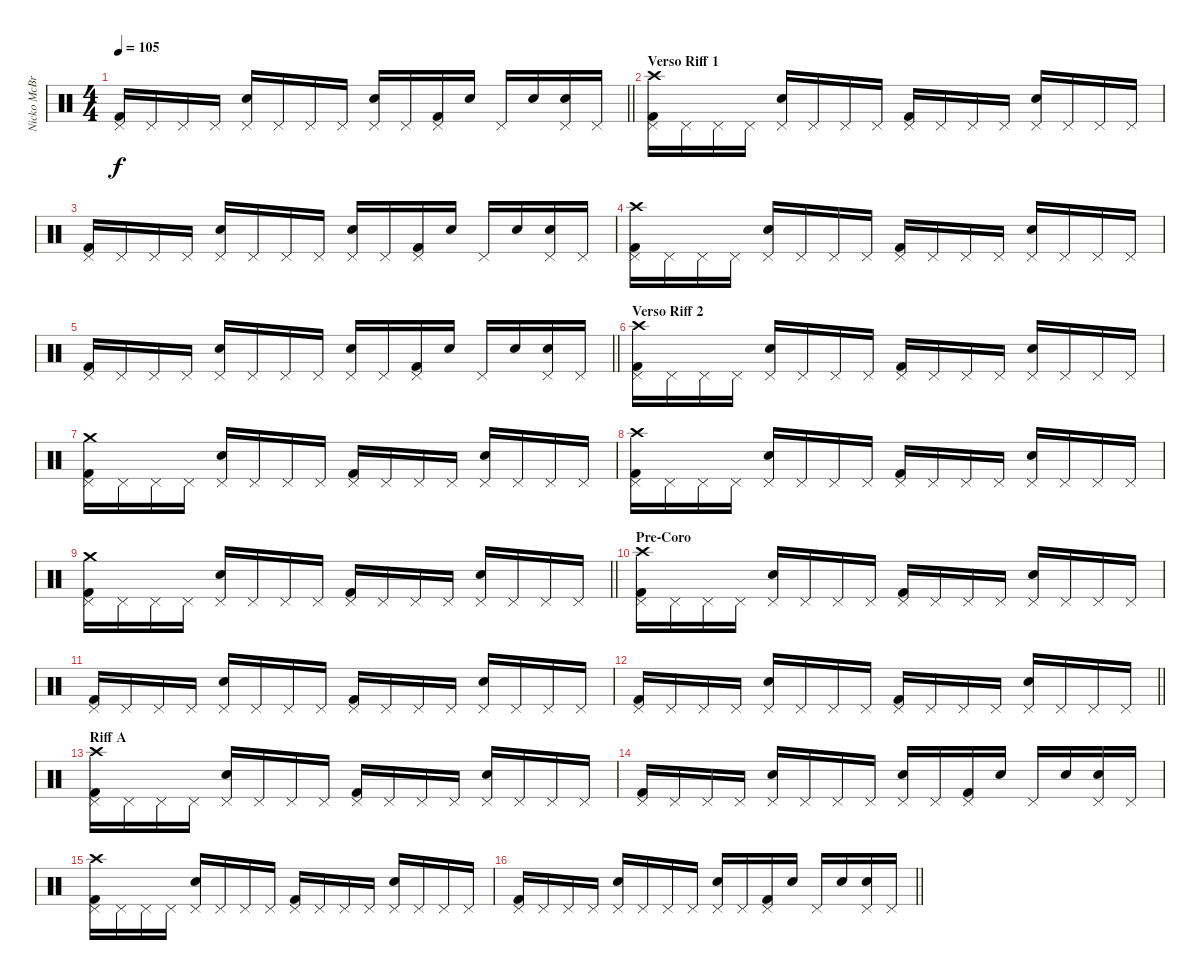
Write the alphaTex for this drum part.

\track ("Nicko McBrain" "Nicko McBr") {instrument percussion}
\staff {score}
\articulation defaults
\ts (4 4)
\tempo 105
\clef neutral
\barLineRight lightlight
\ks c
("Kick (hit) 2" "Pedal Hi-Hat (hit)").16{dy f} "Pedal Hi-Hat (hit)".16 "Pedal Hi-Hat (hit)".16 "Pedal Hi-Hat (hit)".16 ("Snare (hit) 2" "Pedal Hi-Hat (hit)").16 "Pedal Hi-Hat (hit)".16 "Pedal Hi-Hat (hit)".16 "Pedal Hi-Hat (hit)".16 ("Snare (hit) 2" "Pedal Hi-Hat (hit)").16 "Pedal Hi-Hat (hit)".16 ("Kick (hit) 2" "Pedal Hi-Hat (hit)").16 "Snare (hit) 2".16 "Pedal Hi-Hat (hit)".16 "Snare (hit) 2".16 ("Snare (hit) 2" "Pedal Hi-Hat (hit)").16 "Pedal Hi-Hat (hit)".16 |
\section ("" "Verso Riff 1")
("Kick (hit) 2" "Pedal Hi-Hat (hit)" "Crash high (hit)").16 "Pedal Hi-Hat (hit)".16 "Pedal Hi-Hat (hit)".16 "Pedal Hi-Hat (hit)".16 ("Snare (hit) 2" "Pedal Hi-Hat (hit)").16 "Pedal Hi-Hat (hit)".16 "Pedal Hi-Hat (hit)".16 "Pedal Hi-Hat (hit)".16 ("Kick (hit) 2" "Pedal Hi-Hat (hit)").16 "Pedal Hi-Hat (hit)".16 "Pedal Hi-Hat (hit)".16 "Pedal Hi-Hat (hit)".16 ("Snare (hit) 2" "Pedal Hi-Hat (hit)").16 "Pedal Hi-Hat (hit)".16 "Pedal Hi-Hat (hit)".16 "Pedal Hi-Hat (hit)".16 |
("Kick (hit) 2" "Pedal Hi-Hat (hit)").16 "Pedal Hi-Hat (hit)".16 "Pedal Hi-Hat (hit)".16 "Pedal Hi-Hat (hit)".16 ("Snare (hit) 2" "Pedal Hi-Hat (hit)").16 "Pedal Hi-Hat (hit)".16 "Pedal Hi-Hat (hit)".16 "Pedal Hi-Hat (hit)".16 ("Snare (hit) 2" "Pedal Hi-Hat (hit)").16 "Pedal Hi-Hat (hit)".16 ("Kick (hit) 2" "Pedal Hi-Hat (hit)").16 "Snare (hit) 2".16 "Pedal Hi-Hat (hit)".16 "Snare (hit) 2".16 ("Snare (hit) 2" "Pedal Hi-Hat (hit)").16 "Pedal Hi-Hat (hit)".16 |
("Kick (hit) 2" "Pedal Hi-Hat (hit)" "Crash high (hit)").16 "Pedal Hi-Hat (hit)".16 "Pedal Hi-Hat (hit)".16 "Pedal Hi-Hat (hit)".16 ("Snare (hit) 2" "Pedal Hi-Hat (hit)").16 "Pedal Hi-Hat (hit)".16 "Pedal Hi-Hat (hit)".16 "Pedal Hi-Hat (hit)".16 ("Kick (hit) 2" "Pedal Hi-Hat (hit)").16 "Pedal Hi-Hat (hit)".16 "Pedal Hi-Hat (hit)".16 "Pedal Hi-Hat (hit)".16 ("Snare (hit) 2" "Pedal Hi-Hat (hit)").16 "Pedal Hi-Hat (hit)".16 "Pedal Hi-Hat (hit)".16 "Pedal Hi-Hat (hit)".16 |
\barLineRight lightlight
("Kick (hit) 2" "Pedal Hi-Hat (hit)").16 "Pedal Hi-Hat (hit)".16 "Pedal Hi-Hat (hit)".16 "Pedal Hi-Hat (hit)".16 ("Snare (hit) 2" "Pedal Hi-Hat (hit)").16 "Pedal Hi-Hat (hit)".16 "Pedal Hi-Hat (hit)".16 "Pedal Hi-Hat (hit)".16 ("Snare (hit) 2" "Pedal Hi-Hat (hit)").16 "Pedal Hi-Hat (hit)".16 ("Kick (hit) 2" "Pedal Hi-Hat (hit)").16 "Snare (hit) 2".16 "Pedal Hi-Hat (hit)".16 "Snare (hit) 2".16 ("Snare (hit) 2" "Pedal Hi-Hat (hit)").16 "Pedal Hi-Hat (hit)".16 |
\section ("" "Verso Riff 2")
("Kick (hit) 2" "Pedal Hi-Hat (hit)" "Crash high (hit)").16 "Pedal Hi-Hat (hit)".16 "Pedal Hi-Hat (hit)".16 "Pedal Hi-Hat (hit)".16 ("Snare (hit) 2" "Pedal Hi-Hat (hit)").16 "Pedal Hi-Hat (hit)".16 "Pedal Hi-Hat (hit)".16 "Pedal Hi-Hat (hit)".16 ("Kick (hit) 2" "Pedal Hi-Hat (hit)").16 "Pedal Hi-Hat (hit)".16 "Pedal Hi-Hat (hit)".16 "Pedal Hi-Hat (hit)".16 ("Snare (hit) 2" "Pedal Hi-Hat (hit)").16 "Pedal Hi-Hat (hit)".16 "Pedal Hi-Hat (hit)".16 "Pedal Hi-Hat (hit)".16 |
("Kick (hit) 2" "Pedal Hi-Hat (hit)" "Crash medium (hit)").16 "Pedal Hi-Hat (hit)".16 "Pedal Hi-Hat (hit)".16 "Pedal Hi-Hat (hit)".16 ("Snare (hit) 2" "Pedal Hi-Hat (hit)").16 "Pedal Hi-Hat (hit)".16 "Pedal Hi-Hat (hit)".16 "Pedal Hi-Hat (hit)".16 ("Kick (hit) 2" "Pedal Hi-Hat (hit)").16 "Pedal Hi-Hat (hit)".16 "Pedal Hi-Hat (hit)".16 "Pedal Hi-Hat (hit)".16 ("Snare (hit) 2" "Pedal Hi-Hat (hit)").16 "Pedal Hi-Hat (hit)".16 "Pedal Hi-Hat (hit)".16 "Pedal Hi-Hat (hit)".16 |
("Kick (hit) 2" "Pedal Hi-Hat (hit)" "Crash high (hit)").16 "Pedal Hi-Hat (hit)".16 "Pedal Hi-Hat (hit)".16 "Pedal Hi-Hat (hit)".16 ("Snare (hit) 2" "Pedal Hi-Hat (hit)").16 "Pedal Hi-Hat (hit)".16 "Pedal Hi-Hat (hit)".16 "Pedal Hi-Hat (hit)".16 ("Kick (hit) 2" "Pedal Hi-Hat (hit)").16 "Pedal Hi-Hat (hit)".16 "Pedal Hi-Hat (hit)".16 "Pedal Hi-Hat (hit)".16 ("Snare (hit) 2" "Pedal Hi-Hat (hit)").16 "Pedal Hi-Hat (hit)".16 "Pedal Hi-Hat (hit)".16 "Pedal Hi-Hat (hit)".16 |
\barLineRight lightlight
("Kick (hit) 2" "Pedal Hi-Hat (hit)" "Crash medium (hit)").16 "Pedal Hi-Hat (hit)".16 "Pedal Hi-Hat (hit)".16 "Pedal Hi-Hat (hit)".16 ("Snare (hit) 2" "Pedal Hi-Hat (hit)").16 "Pedal Hi-Hat (hit)".16 "Pedal Hi-Hat (hit)".16 "Pedal Hi-Hat (hit)".16 ("Kick (hit) 2" "Pedal Hi-Hat (hit)").16 "Pedal Hi-Hat (hit)".16 "Pedal Hi-Hat (hit)".16 "Pedal Hi-Hat (hit)".16 ("Snare (hit) 2" "Pedal Hi-Hat (hit)").16 "Pedal Hi-Hat (hit)".16 "Pedal Hi-Hat (hit)".16 "Pedal Hi-Hat (hit)".16 |
\section ("" "Pre-Coro")
("Kick (hit) 2" "Pedal Hi-Hat (hit)" "Crash high (hit)").16 "Pedal Hi-Hat (hit)".16 "Pedal Hi-Hat (hit)".16 "Pedal Hi-Hat (hit)".16 ("Snare (hit) 2" "Pedal Hi-Hat (hit)").16 "Pedal Hi-Hat (hit)".16 "Pedal Hi-Hat (hit)".16 "Pedal Hi-Hat (hit)".16 ("Kick (hit) 2" "Pedal Hi-Hat (hit)").16 "Pedal Hi-Hat (hit)".16 "Pedal Hi-Hat (hit)".16 "Pedal Hi-Hat (hit)".16 ("Snare (hit) 2" "Pedal Hi-Hat (hit)").16 "Pedal Hi-Hat (hit)".16 "Pedal Hi-Hat (hit)".16 "Pedal Hi-Hat (hit)".16 |
("Kick (hit) 2" "Pedal Hi-Hat (hit)").16 "Pedal Hi-Hat (hit)".16 "Pedal Hi-Hat (hit)".16 "Pedal Hi-Hat (hit)".16 ("Snare (hit) 2" "Pedal Hi-Hat (hit)").16 "Pedal Hi-Hat (hit)".16 "Pedal Hi-Hat (hit)".16 "Pedal Hi-Hat (hit)".16 ("Kick (hit) 2" "Pedal Hi-Hat (hit)").16 "Pedal Hi-Hat (hit)".16 "Pedal Hi-Hat (hit)".16 "Pedal Hi-Hat (hit)".16 ("Snare (hit) 2" "Pedal Hi-Hat (hit)").16 "Pedal Hi-Hat (hit)".16 "Pedal Hi-Hat (hit)".16 "Pedal Hi-Hat (hit)".16 |
\barLineRight lightlight
("Kick (hit) 2" "Pedal Hi-Hat (hit)").16 "Pedal Hi-Hat (hit)".16 "Pedal Hi-Hat (hit)".16 "Pedal Hi-Hat (hit)".16 ("Snare (hit) 2" "Pedal Hi-Hat (hit)").16 "Pedal Hi-Hat (hit)".16 "Pedal Hi-Hat (hit)".16 "Pedal Hi-Hat (hit)".16 ("Kick (hit) 2" "Pedal Hi-Hat (hit)").16 "Pedal Hi-Hat (hit)".16 "Pedal Hi-Hat (hit)".16 "Pedal Hi-Hat (hit)".16 ("Snare (hit) 2" "Pedal Hi-Hat (hit)").16 "Pedal Hi-Hat (hit)".16 "Pedal Hi-Hat (hit)".16 "Pedal Hi-Hat (hit)".16 |
\section ("" "Riff A")
("Kick (hit) 2" "Pedal Hi-Hat (hit)" "Crash high (hit)").16 "Pedal Hi-Hat (hit)".16 "Pedal Hi-Hat (hit)".16 "Pedal Hi-Hat (hit)".16 ("Snare (hit) 2" "Pedal Hi-Hat (hit)").16 "Pedal Hi-Hat (hit)".16 "Pedal Hi-Hat (hit)".16 "Pedal Hi-Hat (hit)".16 ("Kick (hit) 2" "Pedal Hi-Hat (hit)").16 "Pedal Hi-Hat (hit)".16 "Pedal Hi-Hat (hit)".16 "Pedal Hi-Hat (hit)".16 ("Snare (hit) 2" "Pedal Hi-Hat (hit)").16 "Pedal Hi-Hat (hit)".16 "Pedal Hi-Hat (hit)".16 "Pedal Hi-Hat (hit)".16 |
("Kick (hit) 2" "Pedal Hi-Hat (hit)").16 "Pedal Hi-Hat (hit)".16 "Pedal Hi-Hat (hit)".16 "Pedal Hi-Hat (hit)".16 ("Snare (hit) 2" "Pedal Hi-Hat (hit)").16 "Pedal Hi-Hat (hit)".16 "Pedal Hi-Hat (hit)".16 "Pedal Hi-Hat (hit)".16 ("Snare (hit) 2" "Pedal Hi-Hat (hit)").16 "Pedal Hi-Hat (hit)".16 ("Kick (hit) 2" "Pedal Hi-Hat (hit)").16 "Snare (hit) 2".16 "Pedal Hi-Hat (hit)".16 "Snare (hit) 2".16 ("Snare (hit) 2" "Pedal Hi-Hat (hit)").16 "Pedal Hi-Hat (hit)".16 |
("Kick (hit) 2" "Pedal Hi-Hat (hit)" "Crash high (hit)").16 "Pedal Hi-Hat (hit)".16 "Pedal Hi-Hat (hit)".16 "Pedal Hi-Hat (hit)".16 ("Snare (hit) 2" "Pedal Hi-Hat (hit)").16 "Pedal Hi-Hat (hit)".16 "Pedal Hi-Hat (hit)".16 "Pedal Hi-Hat (hit)".16 ("Kick (hit) 2" "Pedal Hi-Hat (hit)").16 "Pedal Hi-Hat (hit)".16 "Pedal Hi-Hat (hit)".16 "Pedal Hi-Hat (hit)".16 ("Snare (hit) 2" "Pedal Hi-Hat (hit)").16 "Pedal Hi-Hat (hit)".16 "Pedal Hi-Hat (hit)".16 "Pedal Hi-Hat (hit)".16 |
\barLineRight lightlight
("Kick (hit) 2" "Pedal Hi-Hat (hit)").16 "Pedal Hi-Hat (hit)".16 "Pedal Hi-Hat (hit)".16 "Pedal Hi-Hat (hit)".16 ("Snare (hit) 2" "Pedal Hi-Hat (hit)").16 "Pedal Hi-Hat (hit)".16 "Pedal Hi-Hat (hit)".16 "Pedal Hi-Hat (hit)".16 ("Snare (hit) 2" "Pedal Hi-Hat (hit)").16 "Pedal Hi-Hat (hit)".16 ("Kick (hit) 2" "Pedal Hi-Hat (hit)").16 "Snare (hit) 2".16 "Pedal Hi-Hat (hit)".16 "Snare (hit) 2".16 ("Snare (hit) 2" "Pedal Hi-Hat (hit)").16 "Pedal Hi-Hat (hit)".16
